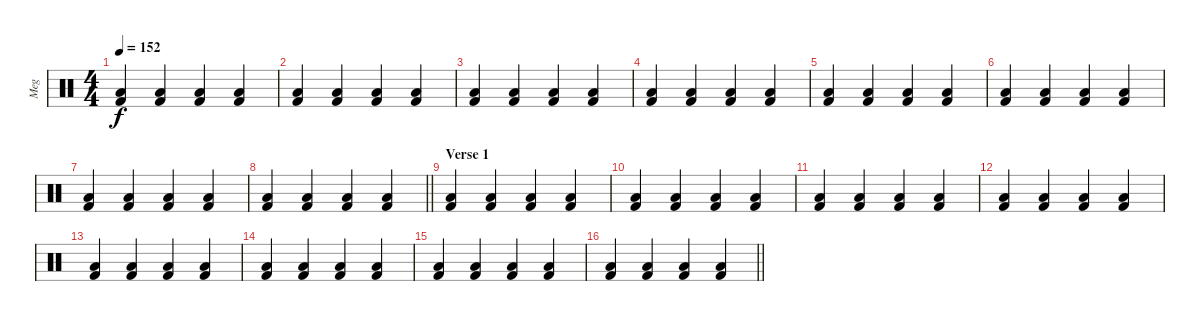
\track ("Meg" "Meg") {instrument percussion}
\staff {score}
\articulation defaults
\ts (4 4)
\tempo 152
\clef neutral
\ks c
("Low Floor Tom (hit)" "Kick (hit) 2").4{dy f} ("Low Floor Tom (hit)" "Kick (hit) 2").4 ("Low Floor Tom (hit)" "Kick (hit) 2").4 ("Low Floor Tom (hit)" "Kick (hit) 2").4 |
("Low Floor Tom (hit)" "Kick (hit) 2").4 ("Low Floor Tom (hit)" "Kick (hit) 2").4 ("Low Floor Tom (hit)" "Kick (hit) 2").4 ("Low Floor Tom (hit)" "Kick (hit) 2").4 |
("Low Floor Tom (hit)" "Kick (hit) 2").4 ("Low Floor Tom (hit)" "Kick (hit) 2").4 ("Low Floor Tom (hit)" "Kick (hit) 2").4 ("Low Floor Tom (hit)" "Kick (hit) 2").4 |
("Low Floor Tom (hit)" "Kick (hit) 2").4 ("Low Floor Tom (hit)" "Kick (hit) 2").4 ("Low Floor Tom (hit)" "Kick (hit) 2").4 ("Low Floor Tom (hit)" "Kick (hit) 2").4 |
("Low Floor Tom (hit)" "Kick (hit) 2").4 ("Low Floor Tom (hit)" "Kick (hit) 2").4 ("Low Floor Tom (hit)" "Kick (hit) 2").4 ("Low Floor Tom (hit)" "Kick (hit) 2").4 |
("Low Floor Tom (hit)" "Kick (hit) 2").4 ("Low Floor Tom (hit)" "Kick (hit) 2").4 ("Low Floor Tom (hit)" "Kick (hit) 2").4 ("Low Floor Tom (hit)" "Kick (hit) 2").4 |
("Low Floor Tom (hit)" "Kick (hit) 2").4 ("Low Floor Tom (hit)" "Kick (hit) 2").4 ("Low Floor Tom (hit)" "Kick (hit) 2").4 ("Low Floor Tom (hit)" "Kick (hit) 2").4 |
\barLineRight lightlight
("Low Floor Tom (hit)" "Kick (hit) 2").4 ("Low Floor Tom (hit)" "Kick (hit) 2").4 ("Low Floor Tom (hit)" "Kick (hit) 2").4 ("Low Floor Tom (hit)" "Kick (hit) 2").4 |
\section ("" "Verse 1")
("Low Floor Tom (hit)" "Kick (hit) 2").4 ("Low Floor Tom (hit)" "Kick (hit) 2").4 ("Low Floor Tom (hit)" "Kick (hit) 2").4 ("Low Floor Tom (hit)" "Kick (hit) 2").4 |
("Low Floor Tom (hit)" "Kick (hit) 2").4 ("Low Floor Tom (hit)" "Kick (hit) 2").4 ("Low Floor Tom (hit)" "Kick (hit) 2").4 ("Low Floor Tom (hit)" "Kick (hit) 2").4 |
("Low Floor Tom (hit)" "Kick (hit) 2").4 ("Low Floor Tom (hit)" "Kick (hit) 2").4 ("Low Floor Tom (hit)" "Kick (hit) 2").4 ("Low Floor Tom (hit)" "Kick (hit) 2").4 |
("Low Floor Tom (hit)" "Kick (hit) 2").4 ("Low Floor Tom (hit)" "Kick (hit) 2").4 ("Low Floor Tom (hit)" "Kick (hit) 2").4 ("Low Floor Tom (hit)" "Kick (hit) 2").4 |
("Low Floor Tom (hit)" "Kick (hit) 2").4 ("Low Floor Tom (hit)" "Kick (hit) 2").4 ("Low Floor Tom (hit)" "Kick (hit) 2").4 ("Low Floor Tom (hit)" "Kick (hit) 2").4 |
("Low Floor Tom (hit)" "Kick (hit) 2").4 ("Low Floor Tom (hit)" "Kick (hit) 2").4 ("Low Floor Tom (hit)" "Kick (hit) 2").4 ("Low Floor Tom (hit)" "Kick (hit) 2").4 |
("Low Floor Tom (hit)" "Kick (hit) 2").4 ("Low Floor Tom (hit)" "Kick (hit) 2").4 ("Low Floor Tom (hit)" "Kick (hit) 2").4 ("Low Floor Tom (hit)" "Kick (hit) 2").4 |
\barLineRight lightlight
("Low Floor Tom (hit)" "Kick (hit) 2").4 ("Low Floor Tom (hit)" "Kick (hit) 2").4 ("Low Floor Tom (hit)" "Kick (hit) 2").4 ("Low Floor Tom (hit)" "Kick (hit) 2").4
